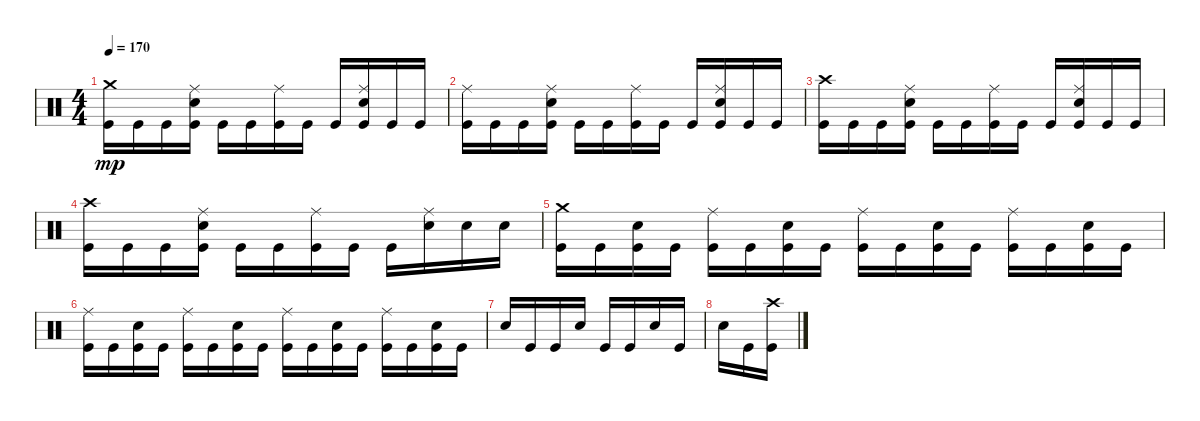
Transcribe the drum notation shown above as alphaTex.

\track "" {instrument percussion}
\staff {score}
\articulation defaults
\ts (4 4)
\tempo 170
\clef neutral
\ks c
("Crash medium (hit)" "Kick (hit)").16{dy mp} "Kick (hit)".16 "Kick (hit)".16 ("Ride (middle)" "Snare (hit) 2" "Kick (hit)").16 "Kick (hit)".16 "Kick (hit)".16 ("Ride (middle)" "Kick (hit)").16 "Kick (hit)".16 "Kick (hit)".16 ("Ride (middle)" "Snare (hit) 2" "Kick (hit)").16 "Kick (hit)".16 "Kick (hit)".16 |
("Ride (middle)" "Kick (hit)").16 "Kick (hit)".16 "Kick (hit)".16 ("Ride (middle)" "Snare (hit) 2" "Kick (hit)").16 "Kick (hit)".16 "Kick (hit)".16 ("Ride (middle)" "Kick (hit)").16 "Kick (hit)".16 "Kick (hit)".16 ("Ride (middle)" "Snare (hit) 2" "Kick (hit)").16 "Kick (hit)".16 "Kick (hit)".16 |
("Crash high (hit)" "Kick (hit)").16 "Kick (hit)".16 "Kick (hit)".16 ("Ride (middle)" "Snare (hit) 2" "Kick (hit)").16 "Kick (hit)".16 "Kick (hit)".16 ("Ride (middle)" "Kick (hit)").16 "Kick (hit)".16 "Kick (hit)".16 ("Ride (middle)" "Snare (hit) 2" "Kick (hit)").16 "Kick (hit)".16 "Kick (hit)".16 |
("Crash high (hit)" "Kick (hit)").16 "Kick (hit)".16 "Kick (hit)".16 ("Snare (hit) 2" "Ride (middle)" "Kick (hit)").16 "Kick (hit)".16 "Kick (hit)".16 ("Ride (middle)" "Kick (hit)").16 "Kick (hit)".16 "Kick (hit)".16 ("Ride (middle)" "Snare (hit) 2").16 "Snare (hit) 2".16 "Snare (hit) 2".16 |
("Crash medium (hit)" "Kick (hit)").16 "Kick (hit)".16 ("Kick (hit)" "Snare (hit) 2").16 "Kick (hit)".16 ("Ride (middle)" "Kick (hit)").16 "Kick (hit)".16 ("Kick (hit)" "Snare (hit) 2").16 "Kick (hit)".16 ("Ride (middle)" "Kick (hit)").16 "Kick (hit)".16 ("Kick (hit)" "Snare (hit) 2").16 "Kick (hit)".16 ("Ride (middle)" "Kick (hit)").16 "Kick (hit)".16 ("Kick (hit)" "Snare (hit) 2").16 "Kick (hit)".16 |
("Ride (middle)" "Kick (hit)").16 "Kick (hit)".16 ("Kick (hit)" "Snare (hit) 2").16 "Kick (hit)".16 ("Ride (middle)" "Kick (hit)").16 "Kick (hit)".16 ("Kick (hit)" "Snare (hit) 2").16 "Kick (hit)".16 ("Ride (middle)" "Kick (hit)").16 "Kick (hit)".16 ("Kick (hit)" "Snare (hit) 2").16 "Kick (hit)".16 ("Ride (middle)" "Kick (hit)").16 "Kick (hit)".16 ("Snare (hit) 2" "Kick (hit)").16 "Kick (hit)".16 |
"Snare (hit) 2".16 "Kick (hit)".16 "Kick (hit)".16 "Snare (hit) 2".16 "Kick (hit)".16 "Kick (hit)".16 "Snare (hit) 2".16 "Kick (hit)".16 |
"Snare (hit) 2".16 "Kick (hit)".16 ("Crash high (hit)" "Kick (hit)").16
